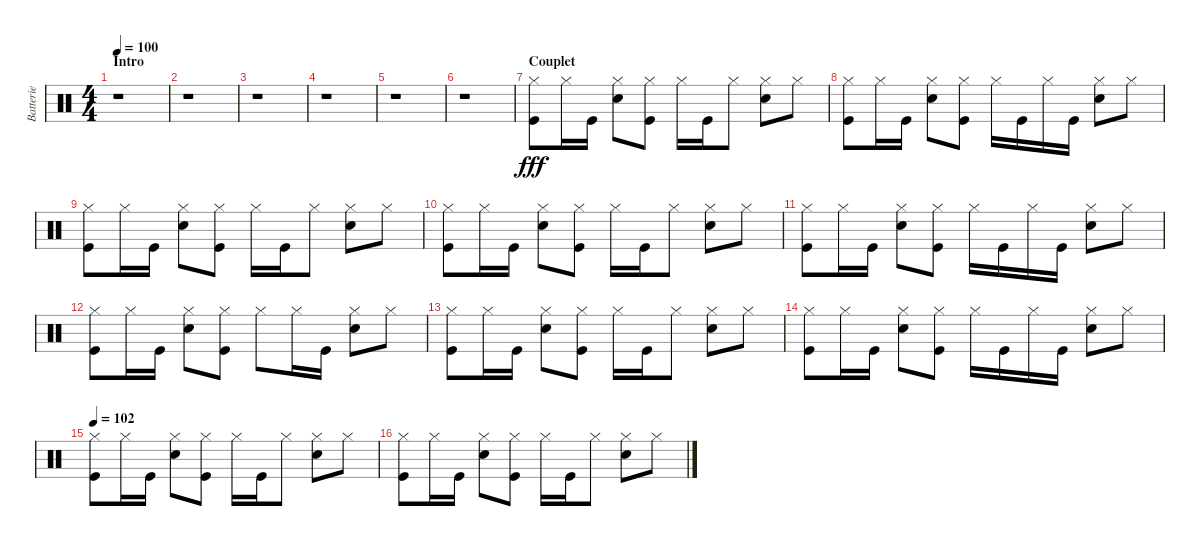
\track ("Batterie" "Batterie") {instrument percussion}
\staff {score}
\articulation defaults
\ts (4 4)
\section ("" "Intro")
\tempo 100
\clef neutral
\ks c
r.1{dy fff} |
r.1 |
r.1 |
r.1 |
r.1 |
r.1 |
\section ("" "Couplet")
("Hi-Hat (closed)" "Kick (hit)").8 "Hi-Hat (closed)".16 "Kick (hit)".16 ("Hi-Hat (closed)" "Metronome (bell)").8 ("Hi-Hat (closed)" "Kick (hit)").8 "Hi-Hat (closed)".16 "Kick (hit)".16 "Hi-Hat (closed)".8 ("Hi-Hat (closed)" "Metronome (bell)").8 "Hi-Hat (closed)".8 |
("Hi-Hat (closed)" "Kick (hit)").8 "Hi-Hat (closed)".16 "Kick (hit)".16 ("Hi-Hat (closed)" "Metronome (bell)").8 ("Hi-Hat (closed)" "Kick (hit)").8 "Hi-Hat (closed)".16 "Kick (hit)".16 "Hi-Hat (closed)".16 "Kick (hit)".16 ("Hi-Hat (closed)" "Metronome (bell)").8 "Hi-Hat (closed)".8 |
("Hi-Hat (closed)" "Kick (hit)").8 "Hi-Hat (closed)".16 "Kick (hit)".16 ("Hi-Hat (closed)" "Metronome (bell)").8 ("Hi-Hat (closed)" "Kick (hit)").8 "Hi-Hat (closed)".16 "Kick (hit)".16 "Hi-Hat (closed)".8 ("Hi-Hat (closed)" "Metronome (bell)").8 "Hi-Hat (closed)".8 |
("Hi-Hat (closed)" "Kick (hit)").8 "Hi-Hat (closed)".16 "Kick (hit)".16 ("Hi-Hat (closed)" "Metronome (bell)").8 ("Hi-Hat (closed)" "Kick (hit)").8 "Hi-Hat (closed)".16 "Kick (hit)".16 "Hi-Hat (closed)".8 ("Hi-Hat (closed)" "Metronome (bell)").8 "Hi-Hat (closed)".8 |
("Hi-Hat (closed)" "Kick (hit)").8 "Hi-Hat (closed)".16 "Kick (hit)".16 ("Hi-Hat (closed)" "Metronome (bell)").8 ("Hi-Hat (closed)" "Kick (hit)").8 "Hi-Hat (closed)".16 "Kick (hit)".16 "Hi-Hat (closed)".16 "Kick (hit)".16 ("Hi-Hat (closed)" "Metronome (bell)").8 "Hi-Hat (closed)".8 |
("Hi-Hat (closed)" "Kick (hit)").8 "Hi-Hat (closed)".16 "Kick (hit)".16 ("Hi-Hat (closed)" "Metronome (bell)").8 ("Hi-Hat (closed)" "Kick (hit)").8 "Hi-Hat (closed)".8 "Hi-Hat (closed)".16 "Kick (hit)".16 ("Hi-Hat (closed)" "Metronome (bell)").8 "Hi-Hat (closed)".8 |
("Hi-Hat (closed)" "Kick (hit)").8 "Hi-Hat (closed)".16 "Kick (hit)".16 ("Hi-Hat (closed)" "Metronome (bell)").8 ("Hi-Hat (closed)" "Kick (hit)").8 "Hi-Hat (closed)".16 "Kick (hit)".16 "Hi-Hat (closed)".8 ("Hi-Hat (closed)" "Metronome (bell)").8 "Hi-Hat (closed)".8 |
("Hi-Hat (closed)" "Kick (hit)").8 "Hi-Hat (closed)".16 "Kick (hit)".16 ("Hi-Hat (closed)" "Metronome (bell)").8 ("Hi-Hat (closed)" "Kick (hit)").8 "Hi-Hat (closed)".16 "Kick (hit)".16 "Hi-Hat (closed)".16 "Kick (hit)".16 ("Hi-Hat (closed)" "Metronome (bell)").8 "Hi-Hat (closed)".8 |
\tempo 102
("Hi-Hat (closed)" "Kick (hit)").8 "Hi-Hat (closed)".16 "Kick (hit)".16 ("Hi-Hat (closed)" "Metronome (bell)").8 ("Hi-Hat (closed)" "Kick (hit)").8 "Hi-Hat (closed)".16 "Kick (hit)".16 "Hi-Hat (closed)".8 ("Hi-Hat (closed)" "Metronome (bell)").8 "Hi-Hat (closed)".8 |
("Hi-Hat (closed)" "Kick (hit)").8 "Hi-Hat (closed)".16 "Kick (hit)".16 ("Hi-Hat (closed)" "Metronome (bell)").8 ("Hi-Hat (closed)" "Kick (hit)").8 "Hi-Hat (closed)".16 "Kick (hit)".16 "Hi-Hat (closed)".8 ("Hi-Hat (closed)" "Metronome (bell)").8 "Hi-Hat (closed)".8
